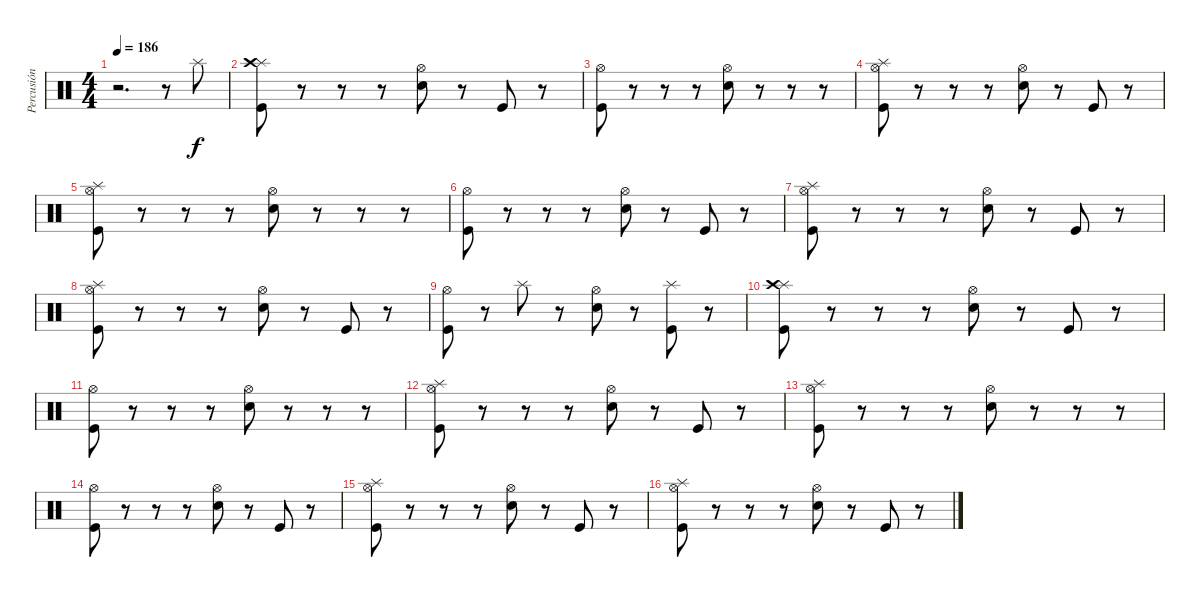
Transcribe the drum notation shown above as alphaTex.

\track ("Percusión" "Percusión") {instrument percussion}
\staff {score}
\articulation defaults
\ts (4 4)
\tempo 186
\clef neutral
\ks c
r.2{d dy ppp} r.8 "Splash (hit)".8{dy f} |
("Splash (hit)" "Crash high (hit)" "Kick (hit)").8 r.8 r.8 r.8 ("Hi-Hat (open)" "Snare (hit) 2").8 r.8 "Kick (hit)".8 r.8 |
("Hi-Hat (open)" "Kick (hit)").8 r.8 r.8 r.8 ("Hi-Hat (open)" "Snare (hit) 2").8 r.8 r.8 r.8 |
("Hi-Hat (open)" "Splash (hit)" "Kick (hit)").8 r.8 r.8 r.8 ("Hi-Hat (open)" "Snare (hit) 2").8 r.8 "Kick (hit)".8 r.8 |
("Hi-Hat (open)" "Splash (hit)" "Kick (hit)").8 r.8 r.8 r.8 ("Hi-Hat (open)" "Snare (hit) 2").8 r.8 r.8 r.8 |
("Hi-Hat (open)" "Kick (hit)").8 r.8 r.8 r.8 ("Hi-Hat (open)" "Snare (hit) 2").8 r.8 "Kick (hit)".8 r.8 |
("Hi-Hat (open)" "Splash (hit)" "Kick (hit)").8 r.8 r.8 r.8 ("Hi-Hat (open)" "Snare (hit) 2").8 r.8 "Kick (hit)".8 r.8 |
("Hi-Hat (open)" "Splash (hit)" "Kick (hit)").8 r.8 r.8 r.8 ("Hi-Hat (open)" "Snare (hit) 2").8 r.8 "Kick (hit)".8 r.8 |
("Hi-Hat (open)" "Kick (hit)").8 r.8 "Splash (hit)".8 r.8 ("Hi-Hat (open)" "Snare (hit) 2").8 r.8 ("Splash (hit)" "Kick (hit)").8 r.8 |
("Splash (hit)" "Crash high (hit)" "Kick (hit)").8 r.8 r.8 r.8 ("Hi-Hat (open)" "Snare (hit) 2").8 r.8 "Kick (hit)".8 r.8 |
("Hi-Hat (open)" "Kick (hit)").8 r.8 r.8 r.8 ("Hi-Hat (open)" "Snare (hit) 2").8 r.8 r.8 r.8 |
("Hi-Hat (open)" "Splash (hit)" "Kick (hit)").8 r.8 r.8 r.8 ("Hi-Hat (open)" "Snare (hit) 2").8 r.8 "Kick (hit)".8 r.8 |
("Hi-Hat (open)" "Splash (hit)" "Kick (hit)").8 r.8 r.8 r.8 ("Hi-Hat (open)" "Snare (hit) 2").8 r.8 r.8 r.8 |
("Hi-Hat (open)" "Kick (hit)").8 r.8 r.8 r.8 ("Hi-Hat (open)" "Snare (hit) 2").8 r.8 "Kick (hit)".8 r.8 |
("Hi-Hat (open)" "Splash (hit)" "Kick (hit)").8 r.8 r.8 r.8 ("Hi-Hat (open)" "Snare (hit) 2").8 r.8 "Kick (hit)".8 r.8 |
("Hi-Hat (open)" "Splash (hit)" "Kick (hit)").8 r.8 r.8 r.8 ("Hi-Hat (open)" "Snare (hit) 2").8 r.8 "Kick (hit)".8 r.8
